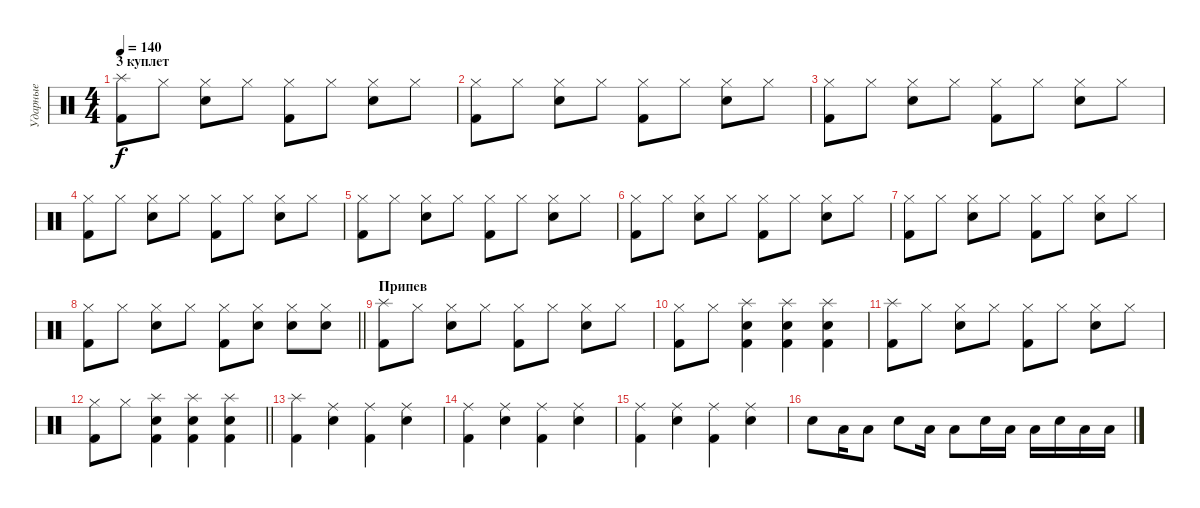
\track ("Ударные" "Ударные") {instrument percussion}
\staff {score}
\articulation defaults
\ts (4 4)
\section ("" "3 куплет")
\tempo 140
\clef neutral
\ks c
("Splash (hit)" "Kick (hit) 2").8{dy f} "Hi-Hat (closed)".8 ("Hi-Hat (closed)" "Snare (hit) 2").8 "Hi-Hat (closed)".8 ("Hi-Hat (closed)" "Kick (hit) 2").8 "Hi-Hat (closed)".8 ("Hi-Hat (closed)" "Snare (hit) 2").8 "Hi-Hat (closed)".8 |
("Hi-Hat (closed)" "Kick (hit) 2").8 "Hi-Hat (closed)".8 ("Hi-Hat (closed)" "Snare (hit) 2").8 "Hi-Hat (closed)".8 ("Hi-Hat (closed)" "Kick (hit) 2").8 "Hi-Hat (closed)".8 ("Hi-Hat (closed)" "Snare (hit) 2").8 "Hi-Hat (closed)".8 |
("Hi-Hat (closed)" "Kick (hit) 2").8 "Hi-Hat (closed)".8 ("Hi-Hat (closed)" "Snare (hit) 2").8 "Hi-Hat (closed)".8 ("Hi-Hat (closed)" "Kick (hit) 2").8 "Hi-Hat (closed)".8 ("Hi-Hat (closed)" "Snare (hit) 2").8 "Hi-Hat (closed)".8 |
("Hi-Hat (closed)" "Kick (hit) 2").8 "Hi-Hat (closed)".8 ("Hi-Hat (closed)" "Snare (hit) 2").8 "Hi-Hat (closed)".8 ("Hi-Hat (closed)" "Kick (hit) 2").8 "Hi-Hat (closed)".8 ("Hi-Hat (closed)" "Snare (hit) 2").8 "Hi-Hat (closed)".8 |
("Hi-Hat (closed)" "Kick (hit) 2").8 "Hi-Hat (closed)".8 ("Hi-Hat (closed)" "Snare (hit) 2").8 "Hi-Hat (closed)".8 ("Hi-Hat (closed)" "Kick (hit) 2").8 "Hi-Hat (closed)".8 ("Hi-Hat (closed)" "Snare (hit) 2").8 "Hi-Hat (closed)".8 |
("Hi-Hat (closed)" "Kick (hit) 2").8 "Hi-Hat (closed)".8 ("Hi-Hat (closed)" "Snare (hit) 2").8 "Hi-Hat (closed)".8 ("Hi-Hat (closed)" "Kick (hit) 2").8 "Hi-Hat (closed)".8 ("Hi-Hat (closed)" "Snare (hit) 2").8 "Hi-Hat (closed)".8 |
("Hi-Hat (closed)" "Kick (hit) 2").8 "Hi-Hat (closed)".8 ("Hi-Hat (closed)" "Snare (hit) 2").8 "Hi-Hat (closed)".8 ("Hi-Hat (closed)" "Kick (hit) 2").8 "Hi-Hat (closed)".8 ("Hi-Hat (closed)" "Snare (hit) 2").8 "Hi-Hat (closed)".8 |
\barLineRight lightlight
("Hi-Hat (closed)" "Kick (hit) 2").8 "Hi-Hat (closed)".8 ("Hi-Hat (closed)" "Snare (hit) 2").8 "Hi-Hat (closed)".8 ("Hi-Hat (closed)" "Kick (hit) 2").8 ("Hi-Hat (closed)" "Snare (hit) 2").8 ("Hi-Hat (closed)" "Snare (hit) 2").8 ("Hi-Hat (closed)" "Snare (hit) 2").8 |
\section ("" "Припев")
("Splash (hit)" "Kick (hit) 2").8 "Hi-Hat (closed)".8 ("Hi-Hat (closed)" "Snare (hit) 2").8 "Hi-Hat (closed)".8 ("Hi-Hat (closed)" "Kick (hit) 2").8 "Hi-Hat (closed)".8 ("Hi-Hat (closed)" "Snare (hit) 2").8 "Hi-Hat (closed)".8 |
("Hi-Hat (closed)" "Kick (hit) 2").8 "Hi-Hat (closed)".8 ("Splash (hit)" "Snare (hit) 2" "Kick (hit) 2").4 ("Splash (hit)" "Snare (hit) 2" "Kick (hit) 2").4 ("Splash (hit)" "Snare (hit) 2" "Kick (hit) 2").4 |
("Splash (hit)" "Kick (hit) 2").8 "Hi-Hat (closed)".8 ("Hi-Hat (closed)" "Snare (hit) 2").8 "Hi-Hat (closed)".8 ("Hi-Hat (closed)" "Kick (hit) 2").8 "Hi-Hat (closed)".8 ("Hi-Hat (closed)" "Snare (hit) 2").8 "Hi-Hat (closed)".8 |
\barLineRight lightlight
("Hi-Hat (closed)" "Kick (hit) 2").8 "Hi-Hat (closed)".8 ("Splash (hit)" "Snare (hit) 2" "Kick (hit) 2").4 ("Splash (hit)" "Snare (hit) 2" "Kick (hit) 2").4 ("Splash (hit)" "Snare (hit) 2" "Kick (hit) 2").4 |
("Splash (hit)" "Kick (hit) 2").4 ("Ride (middle)" "Snare (hit) 2").4 ("Ride (middle)" "Kick (hit) 2").4 ("Ride (middle)" "Snare (hit) 2").4 |
("Ride (middle)" "Kick (hit) 2").4 ("Ride (middle)" "Snare (hit) 2").4 ("Ride (middle)" "Kick (hit) 2").4 ("Ride (middle)" "Snare (hit) 2").4 |
("Ride (middle)" "Kick (hit) 2").4 ("Ride (middle)" "Snare (hit) 2").4 ("Ride (middle)" "Kick (hit) 2").4 ("Ride (middle)" "Snare (hit) 2").4 |
"Snare (hit) 2".8 "Low Tom (hit)".16 "Low Tom (hit)".8 "Snare (hit) 2".8 "Low Tom (hit)".16 "Low Tom (hit)".8 "Snare (hit) 2".16 "Low Tom (hit)".16 "Low Tom (hit)".16 "Snare (hit) 2".16 "Low Tom (hit)".16 "Low Tom (hit)".16
